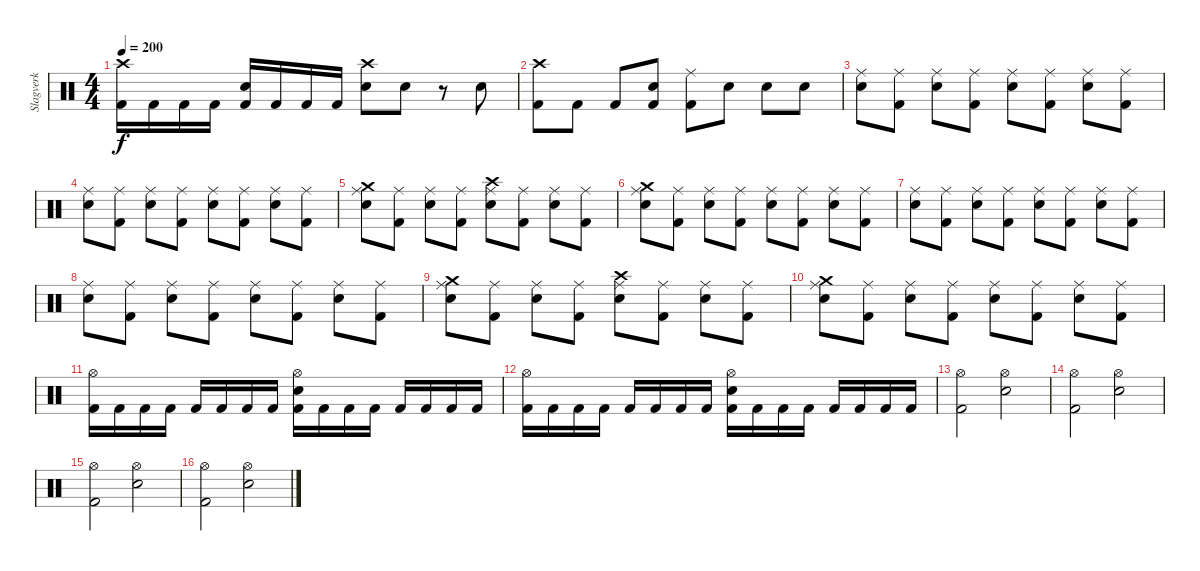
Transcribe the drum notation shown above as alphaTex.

\track ("Slagverk" "Slagverk") {instrument percussion}
\staff {score}
\articulation defaults
\ts (4 4)
\tempo 200
\clef neutral
\ks c
("Crash high (hit)" "Kick (hit) 2").16{dy f} "Kick (hit) 2".16 "Kick (hit) 2".16 "Kick (hit) 2".16 ("Snare (hit) 2" "Kick (hit) 2").16 "Kick (hit) 2".16 "Kick (hit) 2".16 "Kick (hit) 2".16 ("Snare (hit) 2" "Crash high (hit)").8 "Snare (hit) 2".8 r.8 "Snare (hit) 2".8 |
("Kick (hit) 2" "Crash high (hit)").8 "Kick (hit) 2".8 "Kick (hit) 2".8 ("Kick (hit) 2" "Snare (hit) 2").8 ("Kick (hit) 2" "Ride (middle)").8 "Snare (hit) 2".8 "Snare (hit) 2".8 "Snare (hit) 2".8 |
("Ride (middle)" "Snare (hit) 2").8 ("Kick (hit) 2" "Ride (middle)").8 ("Ride (middle)" "Snare (hit) 2").8 ("Kick (hit) 2" "Ride (middle)").8 ("Ride (middle)" "Snare (hit) 2").8 ("Kick (hit) 2" "Ride (middle)").8 ("Ride (middle)" "Snare (hit) 2").8 ("Kick (hit) 2" "Ride (middle)").8 |
("Ride (middle)" "Snare (hit) 2").8 ("Kick (hit) 2" "Ride (middle)").8 ("Ride (middle)" "Snare (hit) 2").8 ("Kick (hit) 2" "Ride (middle)").8 ("Ride (middle)" "Snare (hit) 2").8 ("Kick (hit) 2" "Ride (middle)").8 ("Ride (middle)" "Snare (hit) 2").8 ("Kick (hit) 2" "Ride (middle)").8 |
("Ride (middle)" "Snare (hit) 2" "Crash medium (hit)").8 ("Kick (hit) 2" "Ride (middle)").8 ("Ride (middle)" "Snare (hit) 2").8 ("Kick (hit) 2" "Ride (middle)").8 ("Ride (middle)" "Snare (hit) 2" "Crash high (hit)").8 ("Kick (hit) 2" "Ride (middle)").8 ("Ride (middle)" "Snare (hit) 2").8 ("Kick (hit) 2" "Ride (middle)").8 |
("Ride (middle)" "Snare (hit) 2" "Crash medium (hit)").8 ("Kick (hit) 2" "Ride (middle)").8 ("Ride (middle)" "Snare (hit) 2").8 ("Kick (hit) 2" "Ride (middle)").8 ("Ride (middle)" "Snare (hit) 2").8 ("Kick (hit) 2" "Ride (middle)").8 ("Ride (middle)" "Snare (hit) 2").8 ("Kick (hit) 2" "Ride (middle)").8 |
("Ride (middle)" "Snare (hit) 2").8 ("Kick (hit) 2" "Ride (middle)").8 ("Ride (middle)" "Snare (hit) 2").8 ("Kick (hit) 2" "Ride (middle)").8 ("Ride (middle)" "Snare (hit) 2").8 ("Kick (hit) 2" "Ride (middle)").8 ("Ride (middle)" "Snare (hit) 2").8 ("Kick (hit) 2" "Ride (middle)").8 |
("Ride (middle)" "Snare (hit) 2").8 ("Kick (hit) 2" "Ride (middle)").8 ("Ride (middle)" "Snare (hit) 2").8 ("Kick (hit) 2" "Ride (middle)").8 ("Ride (middle)" "Snare (hit) 2").8 ("Kick (hit) 2" "Ride (middle)").8 ("Ride (middle)" "Snare (hit) 2").8 ("Kick (hit) 2" "Ride (middle)").8 |
("Ride (middle)" "Snare (hit) 2" "Crash medium (hit)").8 ("Kick (hit) 2" "Ride (middle)").8 ("Ride (middle)" "Snare (hit) 2").8 ("Kick (hit) 2" "Ride (middle)").8 ("Ride (middle)" "Snare (hit) 2" "Crash high (hit)").8 ("Kick (hit) 2" "Ride (middle)").8 ("Ride (middle)" "Snare (hit) 2").8 ("Kick (hit) 2" "Ride (middle)").8 |
("Ride (middle)" "Snare (hit) 2" "Crash medium (hit)").8 ("Kick (hit) 2" "Ride (middle)").8 ("Ride (middle)" "Snare (hit) 2").8 ("Kick (hit) 2" "Ride (middle)").8 ("Ride (middle)" "Snare (hit) 2").8 ("Kick (hit) 2" "Ride (middle)").8 ("Ride (middle)" "Snare (hit) 2").8 ("Kick (hit) 2" "Ride (middle)").8 |
("Kick (hit) 2" "Hi-Hat (open)").16 "Kick (hit) 2".16 "Kick (hit) 2".16 "Kick (hit) 2".16 "Kick (hit) 2".16 "Kick (hit) 2".16 "Kick (hit) 2".16 "Kick (hit) 2".16 ("Kick (hit) 2" "Hi-Hat (open)" "Snare (hit) 2").16 "Kick (hit) 2".16 "Kick (hit) 2".16 "Kick (hit) 2".16 "Kick (hit) 2".16 "Kick (hit) 2".16 "Kick (hit) 2".16 "Kick (hit) 2".16 |
("Kick (hit) 2" "Hi-Hat (open)").16 "Kick (hit) 2".16 "Kick (hit) 2".16 "Kick (hit) 2".16 "Kick (hit) 2".16 "Kick (hit) 2".16 "Kick (hit) 2".16 "Kick (hit) 2".16 ("Kick (hit) 2" "Hi-Hat (open)" "Snare (hit) 2").16 "Kick (hit) 2".16 "Kick (hit) 2".16 "Kick (hit) 2".16 "Kick (hit) 2".16 "Kick (hit) 2".16 "Kick (hit) 2".16 "Kick (hit) 2".16 |
("Hi-Hat (open)" "Kick (hit) 2").2 ("Snare (hit) 2" "Hi-Hat (open)").2 |
("Hi-Hat (open)" "Kick (hit) 2").2 ("Snare (hit) 2" "Hi-Hat (open)").2 |
("Hi-Hat (open)" "Kick (hit) 2").2 ("Snare (hit) 2" "Hi-Hat (open)").2 |
("Hi-Hat (open)" "Kick (hit) 2").2 ("Snare (hit) 2" "Hi-Hat (open)").2
